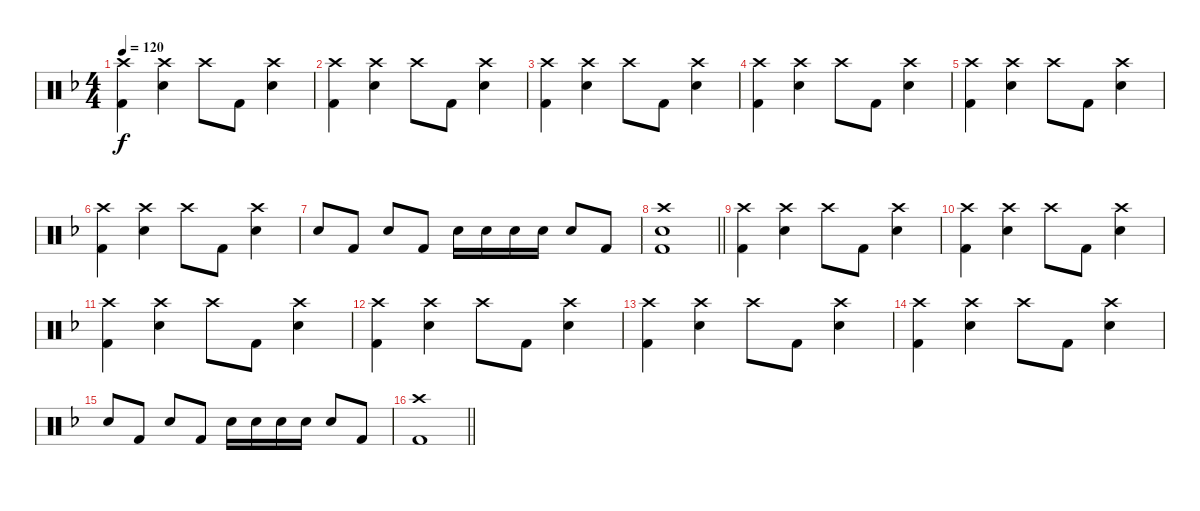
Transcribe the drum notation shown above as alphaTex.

\track "" {mute instrument percussion}
\staff {score}
\articulation defaults
\ts (4 4)
\tempo 120
\clef neutral
\ks f
("Kick (hit) 2" "Crash high (hit)").4{dy f} ("Snare (hit) 2" "Crash high (hit)").4 "Crash high (hit)".8 "Kick (hit) 2".8 ("Snare (hit) 2" "Crash high (hit)").4 |
("Kick (hit) 2" "Crash high (hit)").4 ("Snare (hit) 2" "Crash high (hit)").4 "Crash high (hit)".8 "Kick (hit) 2".8 ("Snare (hit) 2" "Crash high (hit)").4 |
("Kick (hit) 2" "Crash high (hit)").4 ("Snare (hit) 2" "Crash high (hit)").4 "Crash high (hit)".8 "Kick (hit) 2".8 ("Snare (hit) 2" "Crash high (hit)").4 |
("Kick (hit) 2" "Crash high (hit)").4 ("Snare (hit) 2" "Crash high (hit)").4 "Crash high (hit)".8 "Kick (hit) 2".8 ("Snare (hit) 2" "Crash high (hit)").4 |
("Kick (hit) 2" "Crash high (hit)").4 ("Snare (hit) 2" "Crash high (hit)").4 "Crash high (hit)".8 "Kick (hit) 2".8 ("Snare (hit) 2" "Crash high (hit)").4 |
("Kick (hit) 2" "Crash high (hit)").4 ("Snare (hit) 2" "Crash high (hit)").4 "Crash high (hit)".8 "Kick (hit) 2".8 ("Snare (hit) 2" "Crash high (hit)").4 |
"Snare (hit) 2".8 "Kick (hit) 2".8 "Snare (hit) 2".8 "Kick (hit) 2".8 "Snare (hit) 2".16 "Snare (hit) 2".16 "Snare (hit) 2".16 "Snare (hit) 2".16 "Snare (hit) 2".8 "Kick (hit) 2".8 |
\barLineRight lightlight
("Kick (hit) 2" "Snare (hit) 2" "Crash high (hit)").1 |
("Kick (hit) 2" "Crash high (hit)").4 ("Snare (hit) 2" "Crash high (hit)").4 "Crash high (hit)".8 "Kick (hit) 2".8 ("Snare (hit) 2" "Crash high (hit)").4 |
("Kick (hit) 2" "Crash high (hit)").4 ("Snare (hit) 2" "Crash high (hit)").4 "Crash high (hit)".8 "Kick (hit) 2".8 ("Snare (hit) 2" "Crash high (hit)").4 |
("Kick (hit) 2" "Crash high (hit)").4 ("Snare (hit) 2" "Crash high (hit)").4 "Crash high (hit)".8 "Kick (hit) 2".8 ("Snare (hit) 2" "Crash high (hit)").4 |
("Kick (hit) 2" "Crash high (hit)").4 ("Snare (hit) 2" "Crash high (hit)").4 "Crash high (hit)".8 "Kick (hit) 2".8 ("Snare (hit) 2" "Crash high (hit)").4 |
("Kick (hit) 2" "Crash high (hit)").4 ("Snare (hit) 2" "Crash high (hit)").4 "Crash high (hit)".8 "Kick (hit) 2".8 ("Snare (hit) 2" "Crash high (hit)").4 |
("Kick (hit) 2" "Crash high (hit)").4 ("Snare (hit) 2" "Crash high (hit)").4 "Crash high (hit)".8 "Kick (hit) 2".8 ("Snare (hit) 2" "Crash high (hit)").4 |
"Snare (hit) 2".8 "Kick (hit) 2".8 "Snare (hit) 2".8 "Kick (hit) 2".8 "Snare (hit) 2".16 "Snare (hit) 2".16 "Snare (hit) 2".16 "Snare (hit) 2".16 "Snare (hit) 2".8 "Kick (hit) 2".8 |
\barLineRight lightlight
("Kick (hit) 2" "Crash high (hit)").1
